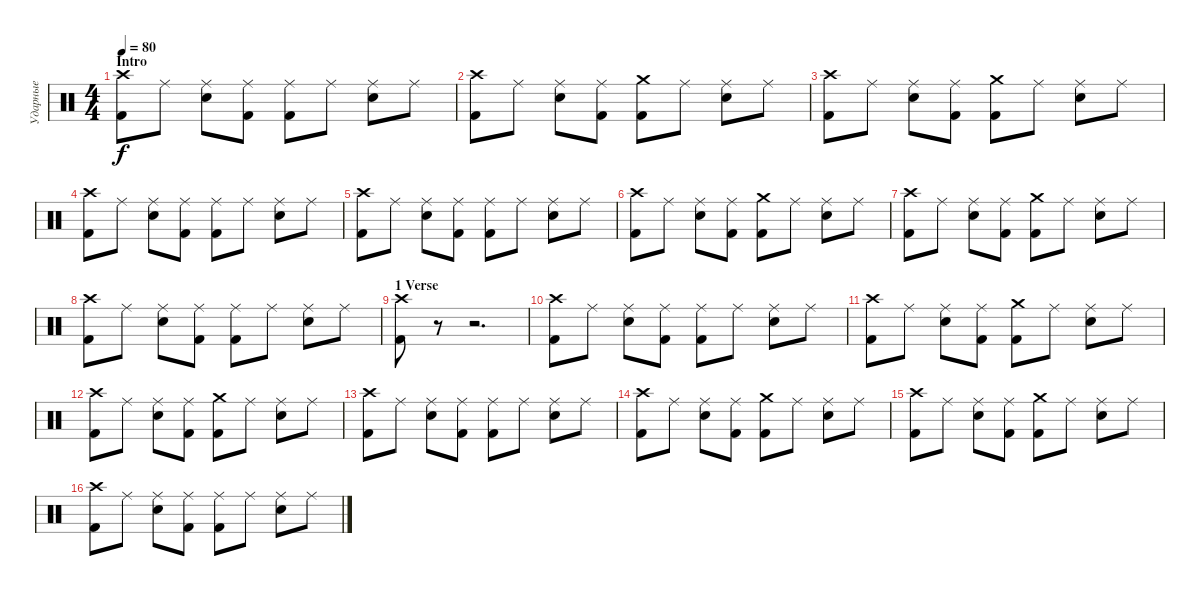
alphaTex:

\track ("Ударные" "Ударные") {instrument percussion}
\staff {score}
\articulation defaults
\ts (4 4)
\section ("" "Intro")
\tempo 80
\clef neutral
\ks c
("Crash high (hit)" "Kick (hit) 2").8{dy f} "Ride (middle)".8 ("Ride (middle)" "Electric Snare (hit)").8 ("Ride (middle)" "Kick (hit) 2").8 ("Ride (middle)" "Kick (hit) 2").8 "Ride (middle)".8 ("Ride (middle)" "Electric Snare (hit)").8 "Ride (middle)".8 |
("Crash high (hit)" "Kick (hit) 2").8 "Ride (middle)".8 ("Ride (middle)" "Electric Snare (hit)").8 ("Ride (middle)" "Kick (hit) 2").8 ("Crash medium (hit)" "Kick (hit) 2").8 "Ride (middle)".8 ("Ride (middle)" "Electric Snare (hit)").8 "Ride (middle)".8 |
("Crash high (hit)" "Kick (hit) 2").8 "Ride (middle)".8 ("Ride (middle)" "Electric Snare (hit)").8 ("Ride (middle)" "Kick (hit) 2").8 ("Crash medium (hit)" "Kick (hit) 2").8 "Ride (middle)".8 ("Ride (middle)" "Electric Snare (hit)").8 "Ride (middle)".8 |
("Crash high (hit)" "Kick (hit) 2").8 "Ride (middle)".8 ("Ride (middle)" "Electric Snare (hit)").8 ("Ride (middle)" "Kick (hit) 2").8 ("Ride (middle)" "Kick (hit) 2").8 "Ride (middle)".8 ("Ride (middle)" "Electric Snare (hit)").8 "Ride (middle)".8 |
("Crash high (hit)" "Kick (hit) 2").8 "Ride (middle)".8 ("Ride (middle)" "Electric Snare (hit)").8 ("Ride (middle)" "Kick (hit) 2").8 ("Ride (middle)" "Kick (hit) 2").8 "Ride (middle)".8 ("Ride (middle)" "Electric Snare (hit)").8 "Ride (middle)".8 |
("Crash high (hit)" "Kick (hit) 2").8 "Ride (middle)".8 ("Ride (middle)" "Electric Snare (hit)").8 ("Ride (middle)" "Kick (hit) 2").8 ("Crash medium (hit)" "Kick (hit) 2").8 "Ride (middle)".8 ("Ride (middle)" "Electric Snare (hit)").8 "Ride (middle)".8 |
("Crash high (hit)" "Kick (hit) 2").8 "Ride (middle)".8 ("Ride (middle)" "Electric Snare (hit)").8 ("Ride (middle)" "Kick (hit) 2").8 ("Crash medium (hit)" "Kick (hit) 2").8 "Ride (middle)".8 ("Ride (middle)" "Electric Snare (hit)").8 "Ride (middle)".8 |
("Crash high (hit)" "Kick (hit) 2").8 "Ride (middle)".8 ("Ride (middle)" "Electric Snare (hit)").8 ("Ride (middle)" "Kick (hit) 2").8 ("Ride (middle)" "Kick (hit) 2").8 "Ride (middle)".8 ("Ride (middle)" "Electric Snare (hit)").8 "Ride (middle)".8 |
\section ("" "1 Verse")
("Crash high (hit)" "Kick (hit) 2").8 r.8 r.2{d} |
("Crash high (hit)" "Kick (hit) 2").8 "Ride (middle)".8 ("Ride (middle)" "Electric Snare (hit)").8 ("Ride (middle)" "Kick (hit) 2").8 ("Ride (middle)" "Kick (hit) 2").8 "Ride (middle)".8 ("Ride (middle)" "Electric Snare (hit)").8 "Ride (middle)".8 |
("Crash high (hit)" "Kick (hit) 2").8 "Ride (middle)".8 ("Ride (middle)" "Electric Snare (hit)").8 ("Ride (middle)" "Kick (hit) 2").8 ("Crash medium (hit)" "Kick (hit) 2").8 "Ride (middle)".8 ("Ride (middle)" "Electric Snare (hit)").8 "Ride (middle)".8 |
("Crash high (hit)" "Kick (hit) 2").8 "Ride (middle)".8 ("Ride (middle)" "Electric Snare (hit)").8 ("Ride (middle)" "Kick (hit) 2").8 ("Crash medium (hit)" "Kick (hit) 2").8 "Ride (middle)".8 ("Ride (middle)" "Electric Snare (hit)").8 "Ride (middle)".8 |
("Crash high (hit)" "Kick (hit) 2").8 "Ride (middle)".8 ("Ride (middle)" "Electric Snare (hit)").8 ("Ride (middle)" "Kick (hit) 2").8 ("Ride (middle)" "Kick (hit) 2").8 "Ride (middle)".8 ("Ride (middle)" "Electric Snare (hit)").8 "Ride (middle)".8 |
("Crash high (hit)" "Kick (hit) 2").8 "Ride (middle)".8 ("Ride (middle)" "Electric Snare (hit)").8 ("Ride (middle)" "Kick (hit) 2").8 ("Crash medium (hit)" "Kick (hit) 2").8 "Ride (middle)".8 ("Ride (middle)" "Electric Snare (hit)").8 "Ride (middle)".8 |
("Crash high (hit)" "Kick (hit) 2").8 "Ride (middle)".8 ("Ride (middle)" "Electric Snare (hit)").8 ("Ride (middle)" "Kick (hit) 2").8 ("Crash medium (hit)" "Kick (hit) 2").8 "Ride (middle)".8 ("Ride (middle)" "Electric Snare (hit)").8 "Ride (middle)".8 |
("Crash high (hit)" "Kick (hit) 2").8 "Ride (middle)".8 ("Ride (middle)" "Electric Snare (hit)").8 ("Ride (middle)" "Kick (hit) 2").8 ("Ride (middle)" "Kick (hit) 2").8 "Ride (middle)".8 ("Ride (middle)" "Electric Snare (hit)").8 "Ride (middle)".8
